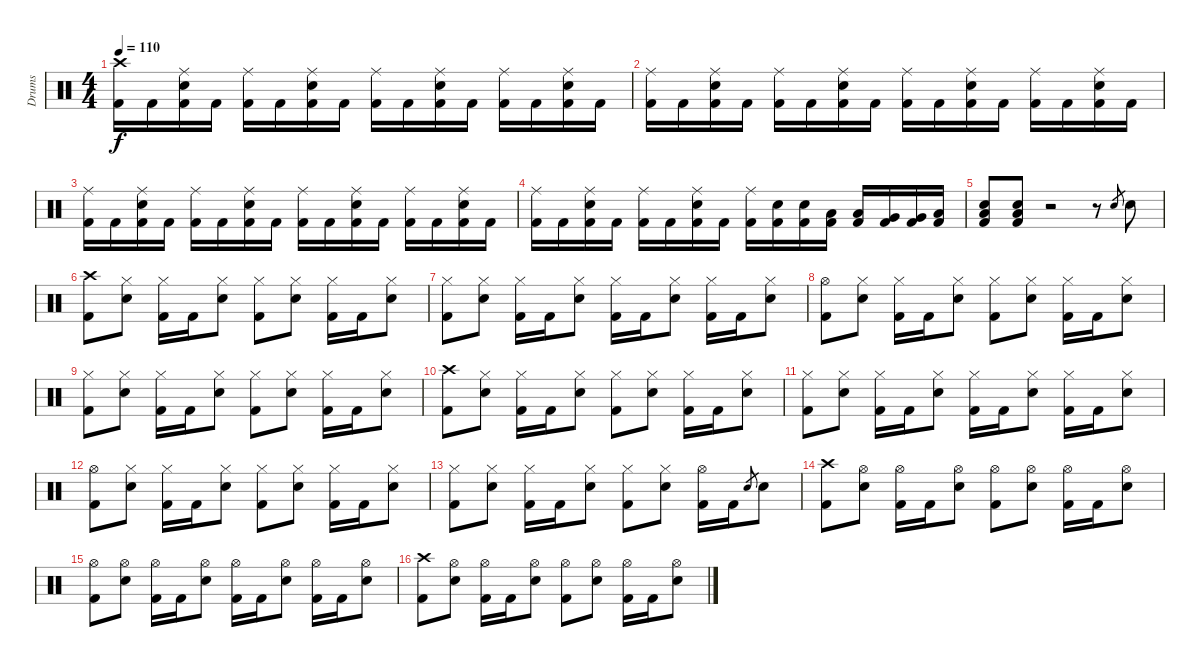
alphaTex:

\track ("Drums" "Drums") {instrument percussion}
\staff {score}
\articulation defaults
\ts (4 4)
\tempo 110
\clef neutral
\ks c
("Crash high (hit)" "Kick (hit) 2").16{dy f} "Kick (hit) 2".16 ("Ride (middle)" "Electric Snare (hit)" "Kick (hit) 2").16 "Kick (hit) 2".16 ("Ride (middle)" "Kick (hit) 2").16 "Kick (hit) 2".16 ("Ride (middle)" "Electric Snare (hit)" "Kick (hit) 2").16 "Kick (hit) 2".16 ("Ride (middle)" "Kick (hit) 2").16 "Kick (hit) 2".16 ("Ride (middle)" "Electric Snare (hit)" "Kick (hit) 2").16 "Kick (hit) 2".16 ("Ride (middle)" "Kick (hit) 2").16 "Kick (hit) 2".16 ("Ride (middle)" "Electric Snare (hit)" "Kick (hit) 2").16 "Kick (hit) 2".16 |
("Ride (middle)" "Kick (hit) 2").16 "Kick (hit) 2".16 ("Ride (middle)" "Electric Snare (hit)" "Kick (hit) 2").16 "Kick (hit) 2".16 ("Ride (middle)" "Kick (hit) 2").16 "Kick (hit) 2".16 ("Ride (middle)" "Electric Snare (hit)" "Kick (hit) 2").16 "Kick (hit) 2".16 ("Ride (middle)" "Kick (hit) 2").16 "Kick (hit) 2".16 ("Ride (middle)" "Electric Snare (hit)" "Kick (hit) 2").16 "Kick (hit) 2".16 ("Ride (middle)" "Kick (hit) 2").16 "Kick (hit) 2".16 ("Ride (middle)" "Electric Snare (hit)" "Kick (hit) 2").16 "Kick (hit) 2".16 |
("Ride (middle)" "Kick (hit) 2").16 "Kick (hit) 2".16 ("Ride (middle)" "Electric Snare (hit)" "Kick (hit) 2").16 "Kick (hit) 2".16 ("Ride (middle)" "Kick (hit) 2").16 "Kick (hit) 2".16 ("Ride (middle)" "Electric Snare (hit)" "Kick (hit) 2").16 "Kick (hit) 2".16 ("Ride (middle)" "Kick (hit) 2").16 "Kick (hit) 2".16 ("Ride (middle)" "Electric Snare (hit)" "Kick (hit) 2").16 "Kick (hit) 2".16 ("Ride (middle)" "Kick (hit) 2").16 "Kick (hit) 2".16 ("Ride (middle)" "Electric Snare (hit)" "Kick (hit) 2").16 "Kick (hit) 2".16 |
("Ride (middle)" "Kick (hit) 2").16 "Kick (hit) 2".16 ("Ride (middle)" "Electric Snare (hit)" "Kick (hit) 2").16 "Kick (hit) 2".16 ("Ride (middle)" "Kick (hit) 2").16 "Kick (hit) 2".16 ("Ride (middle)" "Electric Snare (hit)" "Kick (hit) 2").16 "Kick (hit) 2".16 ("Ride (middle)" "Kick (hit) 2").16 ("Electric Snare (hit)" "Kick (hit) 2").16 ("Electric Snare (hit)" "Kick (hit) 2").16 ("Low Tom (hit)" "Kick (hit) 2").16 ("Low Tom (hit)" "Kick (hit) 2").16 ("Very Low Tom (hit)" "Kick (hit) 2").16 ("Very Low Tom (hit)" "Kick (hit) 2").16 ("Low Floor Tom (hit)" "Kick (hit) 2").16 |
("Low Floor Tom (hit)" "Electric Snare (hit)" "Kick (hit) 2").8 ("Low Floor Tom (hit)" "Electric Snare (hit)" "Kick (hit) 2").8 r.2 r.8 "Electric Snare (hit)".8{gr} "Electric Snare (hit)".8 |
("Crash high (hit)" "Kick (hit) 2").8 ("Hi-Hat (closed)" "Electric Snare (hit)").8 ("Hi-Hat (closed)" "Kick (hit) 2").16 "Kick (hit) 2".16 ("Hi-Hat (closed)" "Electric Snare (hit)").8 ("Hi-Hat (closed)" "Kick (hit) 2").8 ("Hi-Hat (closed)" "Electric Snare (hit)").8 ("Hi-Hat (closed)" "Kick (hit) 2").16 "Kick (hit) 2".16 ("Hi-Hat (closed)" "Electric Snare (hit)").8 |
("Hi-Hat (closed)" "Kick (hit) 2").8 ("Hi-Hat (closed)" "Electric Snare (hit)").8 ("Hi-Hat (closed)" "Kick (hit) 2").16 "Kick (hit) 2".16 ("Hi-Hat (closed)" "Electric Snare (hit)").8 ("Hi-Hat (closed)" "Kick (hit) 2").16 "Kick (hit) 2".16 ("Hi-Hat (closed)" "Electric Snare (hit)").8 ("Hi-Hat (closed)" "Kick (hit) 2").16 "Kick (hit) 2".16 ("Hi-Hat (closed)" "Electric Snare (hit)").8 |
("Hi-Hat (open)" "Kick (hit) 2").8 ("Hi-Hat (closed)" "Electric Snare (hit)").8 ("Hi-Hat (closed)" "Kick (hit) 2").16 "Kick (hit) 2".16 ("Hi-Hat (closed)" "Electric Snare (hit)").8 ("Hi-Hat (closed)" "Kick (hit) 2").8 ("Hi-Hat (closed)" "Electric Snare (hit)").8 ("Hi-Hat (closed)" "Kick (hit) 2").16 "Kick (hit) 2".16 ("Hi-Hat (closed)" "Electric Snare (hit)").8 |
("Hi-Hat (closed)" "Kick (hit) 2").8 ("Hi-Hat (closed)" "Electric Snare (hit)").8 ("Hi-Hat (closed)" "Kick (hit) 2").16 "Kick (hit) 2".16 ("Hi-Hat (closed)" "Electric Snare (hit)").8 ("Hi-Hat (closed)" "Kick (hit) 2").8 ("Hi-Hat (closed)" "Electric Snare (hit)").8 ("Hi-Hat (closed)" "Kick (hit) 2").16 "Kick (hit) 2".16 ("Hi-Hat (closed)" "Electric Snare (hit)").8 |
("Crash high (hit)" "Kick (hit) 2").8 ("Hi-Hat (closed)" "Electric Snare (hit)").8 ("Hi-Hat (closed)" "Kick (hit) 2").16 "Kick (hit) 2".16 ("Hi-Hat (closed)" "Electric Snare (hit)").8 ("Hi-Hat (closed)" "Kick (hit) 2").8 ("Hi-Hat (closed)" "Electric Snare (hit)").8 ("Hi-Hat (closed)" "Kick (hit) 2").16 "Kick (hit) 2".16 ("Hi-Hat (closed)" "Electric Snare (hit)").8 |
("Hi-Hat (closed)" "Kick (hit) 2").8 ("Hi-Hat (closed)" "Electric Snare (hit)").8 ("Hi-Hat (closed)" "Kick (hit) 2").16 "Kick (hit) 2".16 ("Hi-Hat (closed)" "Electric Snare (hit)").8 ("Hi-Hat (closed)" "Kick (hit) 2").16 "Kick (hit) 2".16 ("Hi-Hat (closed)" "Electric Snare (hit)").8 ("Hi-Hat (closed)" "Kick (hit) 2").16 "Kick (hit) 2".16 ("Hi-Hat (closed)" "Electric Snare (hit)").8 |
("Hi-Hat (open)" "Kick (hit) 2").8 ("Hi-Hat (closed)" "Electric Snare (hit)").8 ("Hi-Hat (closed)" "Kick (hit) 2").16 "Kick (hit) 2".16 ("Hi-Hat (closed)" "Electric Snare (hit)").8 ("Hi-Hat (closed)" "Kick (hit) 2").8 ("Hi-Hat (closed)" "Electric Snare (hit)").8 ("Hi-Hat (closed)" "Kick (hit) 2").16 "Kick (hit) 2".16 ("Hi-Hat (closed)" "Electric Snare (hit)").8 |
("Hi-Hat (closed)" "Kick (hit) 2").8 ("Hi-Hat (closed)" "Electric Snare (hit)").8 ("Hi-Hat (closed)" "Kick (hit) 2").16 "Kick (hit) 2".16 ("Hi-Hat (closed)" "Electric Snare (hit)").8 ("Hi-Hat (closed)" "Kick (hit) 2").8 ("Hi-Hat (closed)" "Electric Snare (hit)").8 ("Hi-Hat (open)" "Kick (hit) 2").16 "Kick (hit) 2".16 "Electric Snare (hit)".8{gr} "Electric Snare (hit)".8 |
("Crash high (hit)" "Kick (hit) 2").8 ("Hi-Hat (open)" "Electric Snare (hit)").8 ("Hi-Hat (open)" "Kick (hit) 2").16 "Kick (hit) 2".16 ("Hi-Hat (open)" "Electric Snare (hit)").8 ("Hi-Hat (open)" "Kick (hit) 2").8 ("Hi-Hat (open)" "Electric Snare (hit)").8 ("Hi-Hat (open)" "Kick (hit) 2").16 "Kick (hit) 2".16 ("Hi-Hat (open)" "Electric Snare (hit)").8 |
("Hi-Hat (open)" "Kick (hit) 2").8 ("Hi-Hat (open)" "Electric Snare (hit)").8 ("Hi-Hat (open)" "Kick (hit) 2").16 "Kick (hit) 2".16 ("Hi-Hat (open)" "Electric Snare (hit)").8 ("Hi-Hat (open)" "Kick (hit) 2").16 "Kick (hit) 2".16 ("Hi-Hat (open)" "Electric Snare (hit)").8 ("Hi-Hat (open)" "Kick (hit) 2").16 "Kick (hit) 2".16 ("Hi-Hat (open)" "Electric Snare (hit)").8 |
("Crash high (hit)" "Kick (hit) 2").8 ("Hi-Hat (open)" "Electric Snare (hit)").8 ("Hi-Hat (open)" "Kick (hit) 2").16 "Kick (hit) 2".16 ("Hi-Hat (open)" "Electric Snare (hit)").8 ("Hi-Hat (open)" "Kick (hit) 2").8 ("Hi-Hat (open)" "Electric Snare (hit)").8 ("Hi-Hat (open)" "Kick (hit) 2").16 "Kick (hit) 2".16 ("Hi-Hat (open)" "Electric Snare (hit)").8
